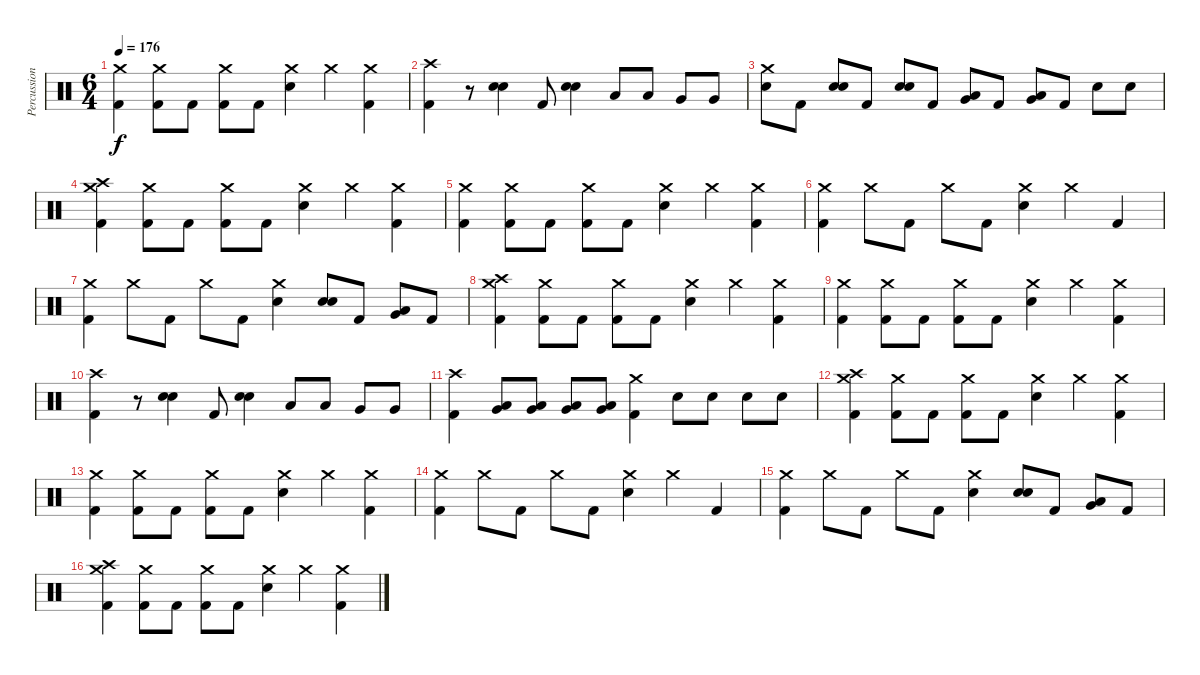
\track ("Percussion" "Percussion") {instrument percussion}
\staff {score}
\articulation defaults
\ts (6 4)
\tempo 176
\clef neutral
\ks c
("Crash medium (hit)" "Kick (hit) 2").4{dy f} ("Crash medium (hit)" "Kick (hit) 2").8 "Kick (hit) 2".8 ("Crash medium (hit)" "Kick (hit) 2").8 "Kick (hit) 2".8 ("Crash medium (hit)" "Snare (hit) 2").4 "Crash medium (hit)".4 ("Crash medium (hit)" "Kick (hit) 2").4 |
("Crash high (hit)" "Kick (hit) 2").4 r.8 ("Snare (hit) 2" "Snare (hit) 2").4 "Kick (hit) 2".8 ("Snare (hit) 2" "Snare (hit) 2").4 "Low Tom (hit)".8 "Low Tom (hit)".8 "Very Low Tom (hit)".8 "Very Low Tom (hit)".8 |
("Crash medium (hit)" "Snare (hit) 2").8 "Kick (hit) 2".8 ("Snare (hit) 2" "Snare (hit) 2").8 "Kick (hit) 2".8 ("Snare (hit) 2" "Snare (hit) 2").8 "Kick (hit) 2".8 ("Low Tom (hit)" "Very Low Tom (hit)").8 "Kick (hit) 2".8 ("Very Low Tom (hit)" "Low Floor Tom (hit)").8 "Kick (hit) 2".8 "Snare (hit) 2".8 "Snare (hit) 2".8 |
("Crash high (hit)" "Crash medium (hit)" "Kick (hit) 2").4 ("Crash medium (hit)" "Kick (hit) 2").8 "Kick (hit) 2".8 ("Crash medium (hit)" "Kick (hit) 2").8 "Kick (hit) 2".8 ("Crash medium (hit)" "Snare (hit) 2").4 "Crash medium (hit)".4 ("Crash medium (hit)" "Kick (hit) 2").4 |
("Crash medium (hit)" "Kick (hit) 2").4 ("Crash medium (hit)" "Kick (hit) 2").8 "Kick (hit) 2".8 ("Crash medium (hit)" "Kick (hit) 2").8 "Kick (hit) 2".8 ("Crash medium (hit)" "Snare (hit) 2").4 "Crash medium (hit)".4 ("Crash medium (hit)" "Kick (hit) 2").4 |
("Crash medium (hit)" "Kick (hit) 2").4 "Crash medium (hit)".8 "Kick (hit) 2".8 "Crash medium (hit)".8 "Kick (hit) 2".8 ("Crash medium (hit)" "Snare (hit) 2").4 "Crash medium (hit)".4 "Kick (hit) 2".4 |
("Crash medium (hit)" "Kick (hit) 2").4 "Crash medium (hit)".8 "Kick (hit) 2".8 "Crash medium (hit)".8 "Kick (hit) 2".8 ("Crash medium (hit)" "Snare (hit) 2").4 ("Snare (hit) 2" "Snare (hit) 2").8 "Kick (hit) 2".8 ("Very Low Tom (hit)" "Low Tom (hit)").8 "Kick (hit) 2".8 |
("Crash high (hit)" "Crash medium (hit)" "Kick (hit) 2").4 ("Crash medium (hit)" "Kick (hit) 2").8 "Kick (hit) 2".8 ("Crash medium (hit)" "Kick (hit) 2").8 "Kick (hit) 2".8 ("Crash medium (hit)" "Snare (hit) 2").4 "Crash medium (hit)".4 ("Crash medium (hit)" "Kick (hit) 2").4 |
("Crash medium (hit)" "Kick (hit) 2").4 ("Crash medium (hit)" "Kick (hit) 2").8 "Kick (hit) 2".8 ("Crash medium (hit)" "Kick (hit) 2").8 "Kick (hit) 2".8 ("Crash medium (hit)" "Snare (hit) 2").4 "Crash medium (hit)".4 ("Crash medium (hit)" "Kick (hit) 2").4 |
("Crash high (hit)" "Kick (hit) 2").4 r.8 ("Snare (hit) 2" "Snare (hit) 2").4 "Kick (hit) 2".8 ("Snare (hit) 2" "Snare (hit) 2").4 "Low Tom (hit)".8 "Low Tom (hit)".8 "Very Low Tom (hit)".8 "Very Low Tom (hit)".8 |
("Crash high (hit)" "Kick (hit) 2").4 ("Low Floor Tom (hit)" "Very Low Tom (hit)").8 ("Low Floor Tom (hit)" "Very Low Tom (hit)").8 ("Low Floor Tom (hit)" "Very Low Tom (hit)").8 ("Low Floor Tom (hit)" "Very Low Tom (hit)").8 ("Crash medium (hit)" "Kick (hit) 2").4 "Snare (hit) 2".8 "Snare (hit) 2".8 "Snare (hit) 2".8 "Snare (hit) 2".8 |
("Crash high (hit)" "Crash medium (hit)" "Kick (hit) 2").4 ("Crash medium (hit)" "Kick (hit) 2").8 "Kick (hit) 2".8 ("Crash medium (hit)" "Kick (hit) 2").8 "Kick (hit) 2".8 ("Crash medium (hit)" "Snare (hit) 2").4 "Crash medium (hit)".4 ("Crash medium (hit)" "Kick (hit) 2").4 |
("Crash medium (hit)" "Kick (hit) 2").4 ("Crash medium (hit)" "Kick (hit) 2").8 "Kick (hit) 2".8 ("Crash medium (hit)" "Kick (hit) 2").8 "Kick (hit) 2".8 ("Crash medium (hit)" "Snare (hit) 2").4 "Crash medium (hit)".4 ("Crash medium (hit)" "Kick (hit) 2").4 |
("Crash medium (hit)" "Kick (hit) 2").4 "Crash medium (hit)".8 "Kick (hit) 2".8 "Crash medium (hit)".8 "Kick (hit) 2".8 ("Crash medium (hit)" "Snare (hit) 2").4 "Crash medium (hit)".4 "Kick (hit) 2".4 |
("Crash medium (hit)" "Kick (hit) 2").4 "Crash medium (hit)".8 "Kick (hit) 2".8 "Crash medium (hit)".8 "Kick (hit) 2".8 ("Crash medium (hit)" "Snare (hit) 2").4 ("Snare (hit) 2" "Snare (hit) 2").8 "Kick (hit) 2".8 ("Very Low Tom (hit)" "Low Tom (hit)").8 "Kick (hit) 2".8 |
("Crash high (hit)" "Crash medium (hit)" "Kick (hit) 2").4 ("Crash medium (hit)" "Kick (hit) 2").8 "Kick (hit) 2".8 ("Crash medium (hit)" "Kick (hit) 2").8 "Kick (hit) 2".8 ("Crash medium (hit)" "Snare (hit) 2").4 "Crash medium (hit)".4 ("Crash medium (hit)" "Kick (hit) 2").4
